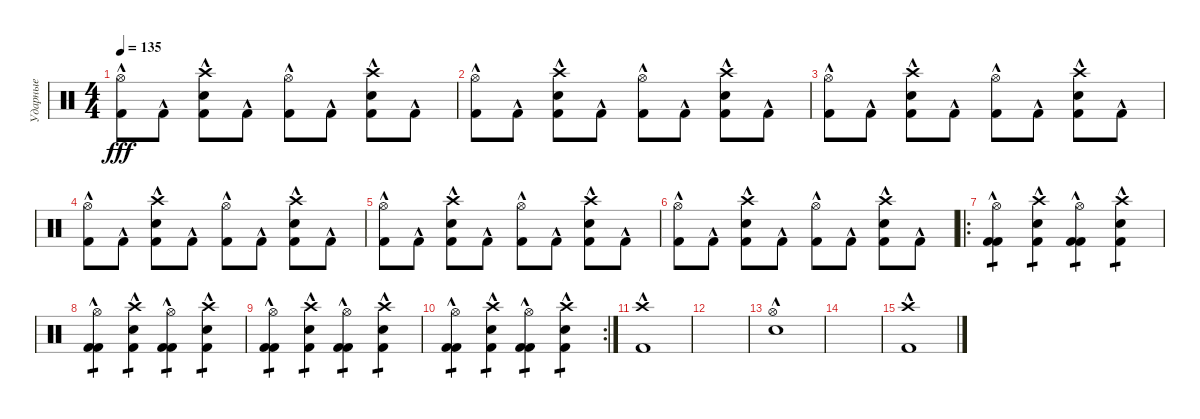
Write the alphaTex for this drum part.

\track ("Ударные" "Ударные") {instrument percussion}
\staff
\articulation defaults
\ts (4 4)
\tempo 135
\clef neutral
\ks c
("Kick (hit) 2"{hac} "Hi-Hat (open)"{hac}).8{dy fff} "Kick (hit) 2"{hac}.8 ("Kick (hit) 2"{hac} "Electric Snare (hit)"{hac} "Crash high (hit)"{hac}).8 "Kick (hit) 2"{hac}.8 ("Kick (hit) 2"{hac} "Hi-Hat (open)"{hac}).8 "Kick (hit) 2"{hac}.8 ("Kick (hit) 2"{hac} "Electric Snare (hit)"{hac} "Crash high (hit)"{hac}).8 "Kick (hit) 2"{hac}.8 |
("Kick (hit) 2"{hac} "Hi-Hat (open)"{hac}).8 "Kick (hit) 2"{hac}.8 ("Kick (hit) 2"{hac} "Electric Snare (hit)"{hac} "Crash high (hit)"{hac}).8 "Kick (hit) 2"{hac}.8 ("Kick (hit) 2"{hac} "Hi-Hat (open)"{hac}).8 "Kick (hit) 2"{hac}.8 ("Kick (hit) 2"{hac} "Electric Snare (hit)"{hac} "Crash high (hit)"{hac}).8 "Kick (hit) 2"{hac}.8 |
("Kick (hit) 2"{hac} "Hi-Hat (open)"{hac}).8 "Kick (hit) 2"{hac}.8 ("Kick (hit) 2"{hac} "Electric Snare (hit)"{hac} "Crash high (hit)"{hac}).8 "Kick (hit) 2"{hac}.8 ("Kick (hit) 2"{hac} "Hi-Hat (open)"{hac}).8 "Kick (hit) 2"{hac}.8 ("Kick (hit) 2"{hac} "Electric Snare (hit)"{hac} "Crash high (hit)"{hac}).8 "Kick (hit) 2"{hac}.8 |
("Kick (hit) 2"{hac} "Hi-Hat (open)"{hac}).8 "Kick (hit) 2"{hac}.8 ("Kick (hit) 2"{hac} "Electric Snare (hit)"{hac} "Crash high (hit)"{hac}).8 "Kick (hit) 2"{hac}.8 ("Kick (hit) 2"{hac} "Hi-Hat (open)"{hac}).8 "Kick (hit) 2"{hac}.8 ("Kick (hit) 2"{hac} "Electric Snare (hit)"{hac} "Crash high (hit)"{hac}).8 "Kick (hit) 2"{hac}.8 |
("Kick (hit) 2"{hac} "Hi-Hat (open)"{hac}).8 "Kick (hit) 2"{hac}.8 ("Kick (hit) 2"{hac} "Electric Snare (hit)"{hac} "Crash high (hit)"{hac}).8 "Kick (hit) 2"{hac}.8 ("Kick (hit) 2"{hac} "Hi-Hat (open)"{hac}).8 "Kick (hit) 2"{hac}.8 ("Kick (hit) 2"{hac} "Electric Snare (hit)"{hac} "Crash high (hit)"{hac}).8 "Kick (hit) 2"{hac}.8 |
("Kick (hit) 2"{hac} "Hi-Hat (open)"{hac}).8 "Kick (hit) 2"{hac}.8 ("Kick (hit) 2"{hac} "Electric Snare (hit)"{hac} "Crash high (hit)"{hac}).8 "Kick (hit) 2"{hac}.8 ("Kick (hit) 2"{hac} "Hi-Hat (open)"{hac}).8 "Kick (hit) 2"{hac}.8 ("Kick (hit) 2"{hac} "Electric Snare (hit)"{hac} "Crash high (hit)"{hac}).8 "Kick (hit) 2"{hac}.8 |
\ro
("Kick (hit) 2"{hac} "Hi-Hat (open)"{hac} "Kick (hit) 2"{hac}).4{tp 1} ("Kick (hit) 2"{hac} "Crash high (hit)"{hac} "Electric Snare (hit)"{hac}).4{tp 1} ("Kick (hit) 2"{hac} "Hi-Hat (open)"{hac} "Kick (hit) 2"{hac}).4{tp 1} ("Kick (hit) 2"{hac} "Crash high (hit)"{hac} "Electric Snare (hit)"{hac}).4{tp 1} |
("Kick (hit) 2"{hac} "Hi-Hat (open)"{hac} "Kick (hit) 2"{hac}).4{tp 1} ("Kick (hit) 2"{hac} "Crash high (hit)"{hac} "Electric Snare (hit)"{hac}).4{tp 1} ("Kick (hit) 2"{hac} "Hi-Hat (open)"{hac} "Kick (hit) 2"{hac}).4{tp 1} ("Kick (hit) 2"{hac} "Crash high (hit)"{hac} "Electric Snare (hit)"{hac}).4{tp 1} |
("Kick (hit) 2"{hac} "Hi-Hat (open)"{hac} "Kick (hit) 2"{hac}).4{tp 1} ("Kick (hit) 2"{hac} "Crash high (hit)"{hac} "Electric Snare (hit)"{hac}).4{tp 1} ("Kick (hit) 2"{hac} "Hi-Hat (open)"{hac} "Kick (hit) 2"{hac}).4{tp 1} ("Kick (hit) 2"{hac} "Crash high (hit)"{hac} "Electric Snare (hit)"{hac}).4{tp 1} |
\rc 2
("Kick (hit) 2"{hac} "Hi-Hat (open)"{hac} "Kick (hit) 2"{hac}).4{tp 1} ("Kick (hit) 2"{hac} "Crash high (hit)"{hac} "Electric Snare (hit)"{hac}).4{tp 1} ("Kick (hit) 2"{hac} "Hi-Hat (open)"{hac} "Kick (hit) 2"{hac}).4{tp 1} ("Kick (hit) 2"{hac} "Crash high (hit)"{hac} "Electric Snare (hit)"{hac}).4{tp 1} |
("Kick (hit) 2"{hac} "Crash high (hit)"{hac}).1 |
|
("Hi-Hat (open)"{hac} "Electric Snare (hit)"{hac}).1 |
|
("Kick (hit) 2"{hac} "Crash high (hit)"{hac}).1
